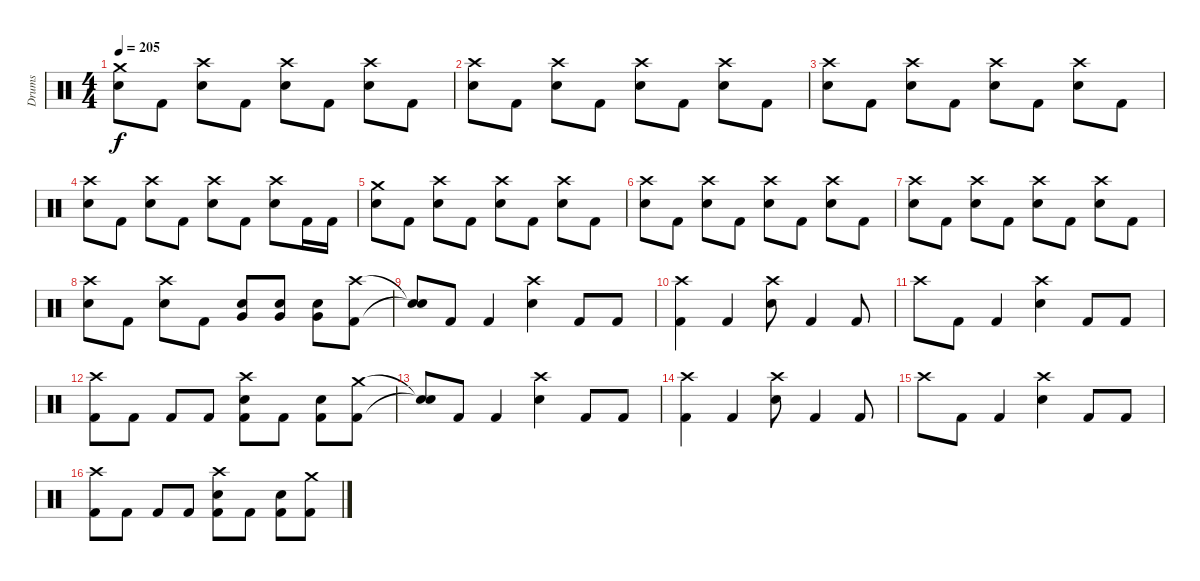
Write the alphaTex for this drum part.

\track ("Drums" "Drums") {instrument percussion}
\staff {score}
\articulation defaults
\ts (4 4)
\tempo 205
\clef neutral
\ks c
("Crash medium (hit)" "Electric Snare (hit)").8{dy f} "Kick (hit) 2".8 ("Crash high (hit)" "Electric Snare (hit)").8 "Kick (hit) 2".8 ("Crash high (hit)" "Electric Snare (hit)").8 "Kick (hit) 2".8 ("Crash high (hit)" "Electric Snare (hit)").8 "Kick (hit) 2".8 |
("Crash high (hit)" "Electric Snare (hit)").8 "Kick (hit) 2".8 ("Crash high (hit)" "Electric Snare (hit)").8 "Kick (hit) 2".8 ("Crash high (hit)" "Electric Snare (hit)").8 "Kick (hit) 2".8 ("Crash high (hit)" "Electric Snare (hit)").8 "Kick (hit) 2".8 |
("Crash high (hit)" "Electric Snare (hit)").8 "Kick (hit) 2".8 ("Crash high (hit)" "Electric Snare (hit)").8 "Kick (hit) 2".8 ("Crash high (hit)" "Electric Snare (hit)").8 "Kick (hit) 2".8 ("Crash high (hit)" "Electric Snare (hit)").8 "Kick (hit) 2".8 |
("Crash high (hit)" "Electric Snare (hit)").8 "Kick (hit) 2".8 ("Crash high (hit)" "Electric Snare (hit)").8 "Kick (hit) 2".8 ("Crash high (hit)" "Electric Snare (hit)").8 "Kick (hit) 2".8 ("Crash high (hit)" "Electric Snare (hit)").8 "Kick (hit) 2".16 "Kick (hit) 2".16 |
("Crash medium (hit)" "Electric Snare (hit)").8 "Kick (hit) 2".8 ("Crash high (hit)" "Electric Snare (hit)").8 "Kick (hit) 2".8 ("Crash high (hit)" "Electric Snare (hit)").8 "Kick (hit) 2".8 ("Crash high (hit)" "Electric Snare (hit)").8 "Kick (hit) 2".8 |
("Crash high (hit)" "Electric Snare (hit)").8 "Kick (hit) 2".8 ("Crash high (hit)" "Electric Snare (hit)").8 "Kick (hit) 2".8 ("Crash high (hit)" "Electric Snare (hit)").8 "Kick (hit) 2".8 ("Crash high (hit)" "Electric Snare (hit)").8 "Kick (hit) 2".8 |
("Crash high (hit)" "Electric Snare (hit)").8 "Kick (hit) 2".8 ("Crash high (hit)" "Electric Snare (hit)").8 "Kick (hit) 2".8 ("Crash high (hit)" "Electric Snare (hit)").8 "Kick (hit) 2".8 ("Crash high (hit)" "Electric Snare (hit)").8 "Kick (hit) 2".8 |
("Crash high (hit)" "Electric Snare (hit)").8 "Kick (hit) 2".8 ("Crash high (hit)" "Electric Snare (hit)").8 "Kick (hit) 2".8 ("Very Low Tom (hit)" "Electric Snare (hit)").8 ("Very Low Tom (hit)" "Electric Snare (hit)").8 ("Very Low Tom (hit)" "Electric Snare (hit)").8 ("Crash high (hit)" "Kick (hit) 2").8 |
("Snare (hit)"{t} "Snare (hit)"{t}).8 "Kick (hit) 2".8 "Kick (hit) 2".4 ("Crash high (hit)" "Electric Snare (hit)").4 "Kick (hit) 2".8 "Kick (hit) 2".8 |
("Crash high (hit)" "Kick (hit) 2").4 "Kick (hit) 2".4 ("Crash high (hit)" "Electric Snare (hit)").8 "Kick (hit) 2".4 "Kick (hit) 2".8 |
"Crash high (hit)".8 "Kick (hit) 2".8 "Kick (hit) 2".4 ("Crash high (hit)" "Electric Snare (hit)").4 "Kick (hit) 2".8 "Kick (hit) 2".8 |
("Crash high (hit)" "Kick (hit) 2").8 "Kick (hit) 2".8 "Kick (hit) 2".8 "Kick (hit) 2".8 ("Crash high (hit)" "Electric Snare (hit)" "Kick (hit) 2").8 "Kick (hit) 2".8 ("Electric Snare (hit)" "Kick (hit) 2").8 ("Crash medium (hit)" "Kick (hit) 2").8 |
("Snare (hit)"{t} "Snare (hit)"{t}).8 "Kick (hit) 2".8 "Kick (hit) 2".4 ("Crash high (hit)" "Electric Snare (hit)").4 "Kick (hit) 2".8 "Kick (hit) 2".8 |
("Crash high (hit)" "Kick (hit) 2").4 "Kick (hit) 2".4 ("Crash high (hit)" "Electric Snare (hit)").8 "Kick (hit) 2".4 "Kick (hit) 2".8 |
"Crash high (hit)".8 "Kick (hit) 2".8 "Kick (hit) 2".4 ("Crash high (hit)" "Electric Snare (hit)").4 "Kick (hit) 2".8 "Kick (hit) 2".8 |
("Crash high (hit)" "Kick (hit) 2").8 "Kick (hit) 2".8 "Kick (hit) 2".8 "Kick (hit) 2".8 ("Crash high (hit)" "Electric Snare (hit)" "Kick (hit) 2").8 "Kick (hit) 2".8 ("Electric Snare (hit)" "Kick (hit) 2").8 ("Crash medium (hit)" "Kick (hit) 2").8
